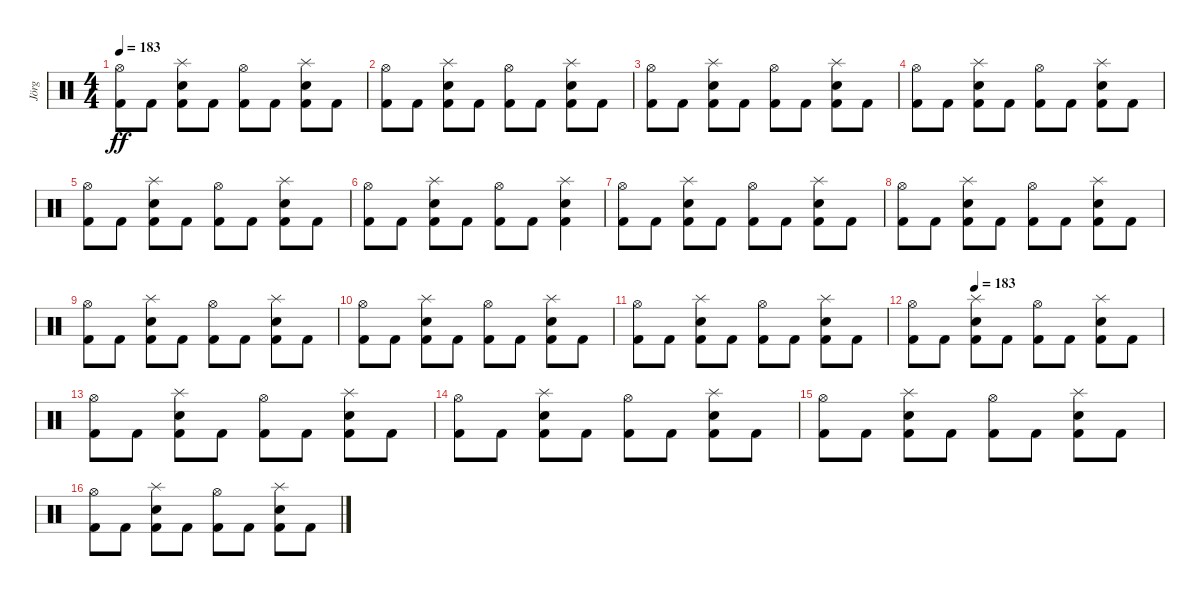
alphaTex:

\track ("Jörg" "Jörg") {instrument percussion}
\staff {score}
\articulation defaults
\ts (4 4)
\tempo 183
\clef neutral
\ks c
("Kick (hit) 2" "Hi-Hat (open)").8{dy ff} "Kick (hit) 2".8 ("Snare (hit) 2" "Kick (hit) 2" "Splash (hit)").8 "Kick (hit) 2".8 ("Kick (hit) 2" "Hi-Hat (open)").8 "Kick (hit) 2".8 ("Snare (hit) 2" "Kick (hit) 2" "Splash (hit)").8 "Kick (hit) 2".8 |
("Kick (hit) 2" "Hi-Hat (open)").8 "Kick (hit) 2".8 ("Snare (hit) 2" "Kick (hit) 2" "Splash (hit)").8 "Kick (hit) 2".8 ("Kick (hit) 2" "Hi-Hat (open)").8 "Kick (hit) 2".8 ("Snare (hit) 2" "Kick (hit) 2" "Splash (hit)").8 "Kick (hit) 2".8 |
("Kick (hit) 2" "Hi-Hat (open)").8 "Kick (hit) 2".8 ("Snare (hit) 2" "Kick (hit) 2" "Splash (hit)").8 "Kick (hit) 2".8 ("Kick (hit) 2" "Hi-Hat (open)").8 "Kick (hit) 2".8 ("Snare (hit) 2" "Kick (hit) 2" "Splash (hit)").8 "Kick (hit) 2".8 |
("Kick (hit) 2" "Hi-Hat (open)").8 "Kick (hit) 2".8 ("Snare (hit) 2" "Kick (hit) 2" "Splash (hit)").8 "Kick (hit) 2".8 ("Kick (hit) 2" "Hi-Hat (open)").8 "Kick (hit) 2".8 ("Snare (hit) 2" "Kick (hit) 2" "Splash (hit)").8 "Kick (hit) 2".8 |
("Kick (hit) 2" "Hi-Hat (open)").8 "Kick (hit) 2".8 ("Snare (hit) 2" "Kick (hit) 2" "Splash (hit)").8 "Kick (hit) 2".8 ("Kick (hit) 2" "Hi-Hat (open)").8 "Kick (hit) 2".8 ("Snare (hit) 2" "Kick (hit) 2" "Splash (hit)").8 "Kick (hit) 2".8 |
("Kick (hit) 2" "Hi-Hat (open)").8 "Kick (hit) 2".8 ("Kick (hit) 2" "Snare (hit) 2" "Splash (hit)").8 "Kick (hit) 2".8 ("Kick (hit) 2" "Hi-Hat (open)").8 "Kick (hit) 2".8 ("Kick (hit) 2" "Snare (hit) 2" "Splash (hit)").4 |
("Kick (hit) 2" "Hi-Hat (open)").8 "Kick (hit) 2".8 ("Snare (hit) 2" "Kick (hit) 2" "Splash (hit)").8 "Kick (hit) 2".8 ("Kick (hit) 2" "Hi-Hat (open)").8 "Kick (hit) 2".8 ("Snare (hit) 2" "Kick (hit) 2" "Splash (hit)").8 "Kick (hit) 2".8 |
("Hi-Hat (open)" "Kick (hit) 2").8 "Kick (hit) 2".8 ("Snare (hit) 2" "Kick (hit) 2" "Splash (hit)").8 "Kick (hit) 2".8 ("Kick (hit) 2" "Hi-Hat (open)").8 "Kick (hit) 2".8 ("Snare (hit) 2" "Kick (hit) 2" "Splash (hit)").8 "Kick (hit) 2".8 |
("Kick (hit) 2" "Hi-Hat (open)").8 "Kick (hit) 2".8 ("Snare (hit) 2" "Kick (hit) 2" "Splash (hit)").8 "Kick (hit) 2".8 ("Kick (hit) 2" "Hi-Hat (open)").8 "Kick (hit) 2".8 ("Snare (hit) 2" "Kick (hit) 2" "Splash (hit)").8 "Kick (hit) 2".8 |
("Hi-Hat (open)" "Kick (hit) 2").8 "Kick (hit) 2".8 ("Snare (hit) 2" "Kick (hit) 2" "Splash (hit)").8 "Kick (hit) 2".8 ("Kick (hit) 2" "Hi-Hat (open)").8 "Kick (hit) 2".8 ("Snare (hit) 2" "Kick (hit) 2" "Splash (hit)").8 "Kick (hit) 2".8 |
("Kick (hit) 2" "Hi-Hat (open)").8 "Kick (hit) 2".8 ("Snare (hit) 2" "Kick (hit) 2" "Splash (hit)").8 "Kick (hit) 2".8 ("Kick (hit) 2" "Hi-Hat (open)").8 "Kick (hit) 2".8 ("Snare (hit) 2" "Kick (hit) 2" "Splash (hit)").8 "Kick (hit) 2".8 |
\tempo (183 0.25)
("Hi-Hat (open)" "Kick (hit) 2").8 "Kick (hit) 2".8 ("Snare (hit) 2" "Kick (hit) 2" "Splash (hit)").8 "Kick (hit) 2".8 ("Kick (hit) 2" "Hi-Hat (open)").8 "Kick (hit) 2".8 ("Snare (hit) 2" "Kick (hit) 2" "Splash (hit)").8 "Kick (hit) 2".8 |
("Kick (hit) 2" "Hi-Hat (open)").8 "Kick (hit) 2".8 ("Snare (hit) 2" "Kick (hit) 2" "Splash (hit)").8 "Kick (hit) 2".8 ("Kick (hit) 2" "Hi-Hat (open)").8 "Kick (hit) 2".8 ("Snare (hit) 2" "Kick (hit) 2" "Splash (hit)").8 "Kick (hit) 2".8 |
("Hi-Hat (open)" "Kick (hit) 2").8 "Kick (hit) 2".8{volume 16} ("Snare (hit) 2" "Kick (hit) 2" "Splash (hit)").8{volume 16} "Kick (hit) 2".8{volume 15} ("Kick (hit) 2" "Hi-Hat (open)").8{volume 15} "Kick (hit) 2".8{volume 15} ("Snare (hit) 2" "Kick (hit) 2" "Splash (hit)").8{volume 15} "Kick (hit) 2".8{volume 14} |
("Kick (hit) 2" "Hi-Hat (open)").8{volume 14} "Kick (hit) 2".8{volume 14} ("Snare (hit) 2" "Kick (hit) 2" "Splash (hit)").8{volume 14} "Kick (hit) 2".8{volume 14} ("Kick (hit) 2" "Hi-Hat (open)").8{volume 13} "Kick (hit) 2".8{volume 13} ("Snare (hit) 2" "Kick (hit) 2" "Splash (hit)").8{volume 13} "Kick (hit) 2".8{volume 13} |
("Hi-Hat (open)" "Kick (hit) 2").8{volume 12} "Kick (hit) 2".8{volume 12} ("Snare (hit) 2" "Kick (hit) 2" "Splash (hit)").8{volume 12} "Kick (hit) 2".8{volume 12} ("Kick (hit) 2" "Hi-Hat (open)").8{volume 12} "Kick (hit) 2".8{volume 11} ("Snare (hit) 2" "Kick (hit) 2" "Splash (hit)").8{volume 11} "Kick (hit) 2".8{volume 11}
